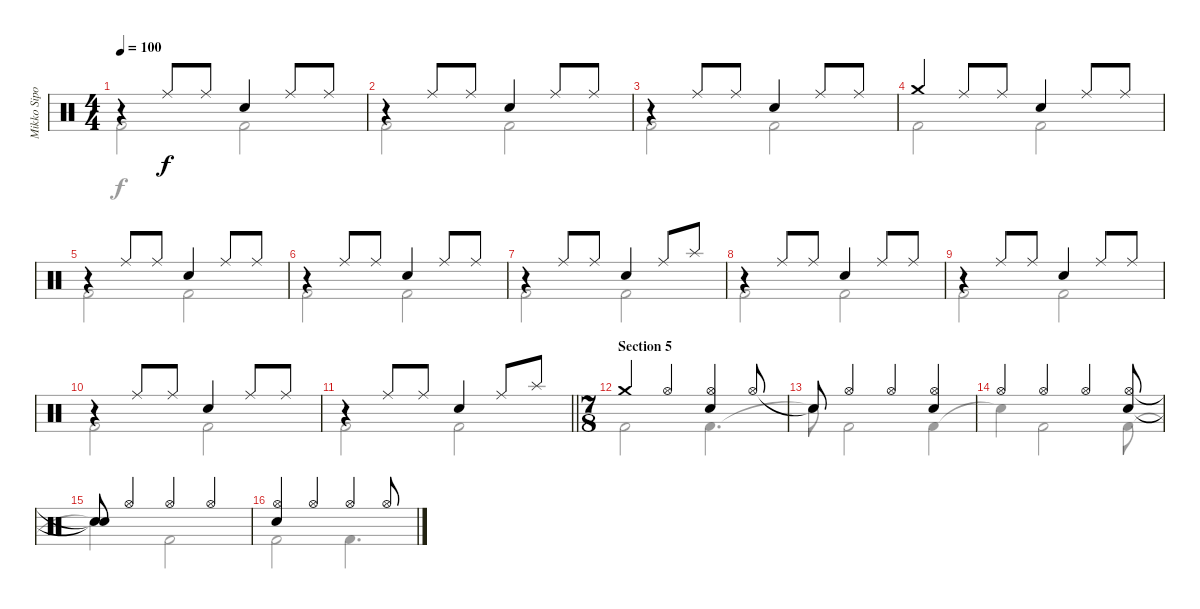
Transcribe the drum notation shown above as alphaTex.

\track ("Mikko Sipola (drums)" "Mikko Sipo") {instrument percussion}
\staff {score}
\articulation defaults
\voice
\ts (4 4)
\tempo 100
\clef neutral
\ks aminor
r.4{dy f} "Ride (middle)".8 "Ride (middle)".8 "Snare (hit) 2".4 "Ride (middle)".8 "Ride (middle)".8 |
r.4 "Ride (middle)".8 "Ride (middle)".8 "Snare (hit) 2".4 "Ride (middle)".8 "Ride (middle)".8 |
r.4 "Ride (middle)".8 "Ride (middle)".8 "Snare (hit) 2".4 "Ride (middle)".8 "Ride (middle)".8 |
"Crash medium (hit)".4 "Ride (middle)".8 "Ride (middle)".8 "Snare (hit) 2".4 "Ride (middle)".8 "Ride (middle)".8 |
r.4 "Ride (middle)".8 "Ride (middle)".8 "Snare (hit) 2".4 "Ride (middle)".8 "Ride (middle)".8 |
r.4 "Ride (middle)".8 "Ride (middle)".8 "Snare (hit) 2".4 "Ride (middle)".8 "Ride (middle)".8 |
r.4 "Ride (middle)".8 "Ride (middle)".8 "Snare (hit) 2".4 "Ride (middle)".8 "Splash (hit)".8 |
r.4 "Ride (middle)".8 "Ride (middle)".8 "Snare (hit) 2".4 "Ride (middle)".8 "Ride (middle)".8 |
r.4 "Ride (middle)".8 "Ride (middle)".8 "Snare (hit) 2".4 "Ride (middle)".8 "Ride (middle)".8 |
r.4 "Ride (middle)".8 "Ride (middle)".8 "Snare (hit) 2".4 "Ride (middle)".8 "Ride (middle)".8 |
\barLineRight lightlight
r.4 "Ride (middle)".8 "Ride (middle)".8 "Snare (hit) 2".4 "Ride (middle)".8 "Splash (hit)".8 |
\ts (7 8)
\section ("" "Section 5")
"Crash medium (hit)".4 "Hi-Hat (open)".4 ("Hi-Hat (open)" "Snare (hit) 2").4 "Hi-Hat (open)".8 |
"Snare (hit)"{t}.8 "Hi-Hat (open)".4 "Hi-Hat (open)".4 ("Hi-Hat (open)" "Snare (hit) 2").4 |
"Hi-Hat (open)".4 "Hi-Hat (open)".4 "Hi-Hat (open)".4 ("Hi-Hat (open)" "Snare (hit) 2").8 |
("Snare (hit)"{t} "Snare (hit)"{t}).8 "Hi-Hat (open)".4 "Hi-Hat (open)".4 "Hi-Hat (open)".4 |
("Hi-Hat (open)" "Snare (hit) 2").4 "Hi-Hat (open)".4 "Hi-Hat (open)".4 "Hi-Hat (open)".8
\voice
\clef neutral
\ottava regular
\simile none
\ks aminor "Kick (hit) 2".2{dy f} "Kick (hit) 2".2
|
"Kick (hit) 2".2 "Kick (hit) 2".2 |
"Kick (hit) 2".2 "Kick (hit) 2".2 |
"Kick (hit) 2".2 "Kick (hit) 2".2 |
"Kick (hit) 2".2 "Kick (hit) 2".2 |
"Kick (hit) 2".2 "Kick (hit) 2".2 |
"Kick (hit) 2".2 "Kick (hit) 2".2 |
"Kick (hit) 2".2 "Kick (hit) 2".2 |
"Kick (hit) 2".2 "Kick (hit) 2".2 |
"Kick (hit) 2".2 "Kick (hit) 2".2 |
\barLineRight lightlight "Kick (hit) 2".2 "Kick (hit) 2".2
|
"Kick (hit) 2".2 "Kick (hit) 2".4{d} |
"Snare (hit)"{t}.8 "Kick (hit) 2".2 "Kick (hit) 2".4 |
"Snare (hit)"{t}.4 "Kick (hit) 2".2 "Kick (hit) 2".8 |
"Snare (hit)"{t}.4{d} "Kick (hit) 2".2 |
"Kick (hit) 2".2 "Kick (hit) 2".4{d}
